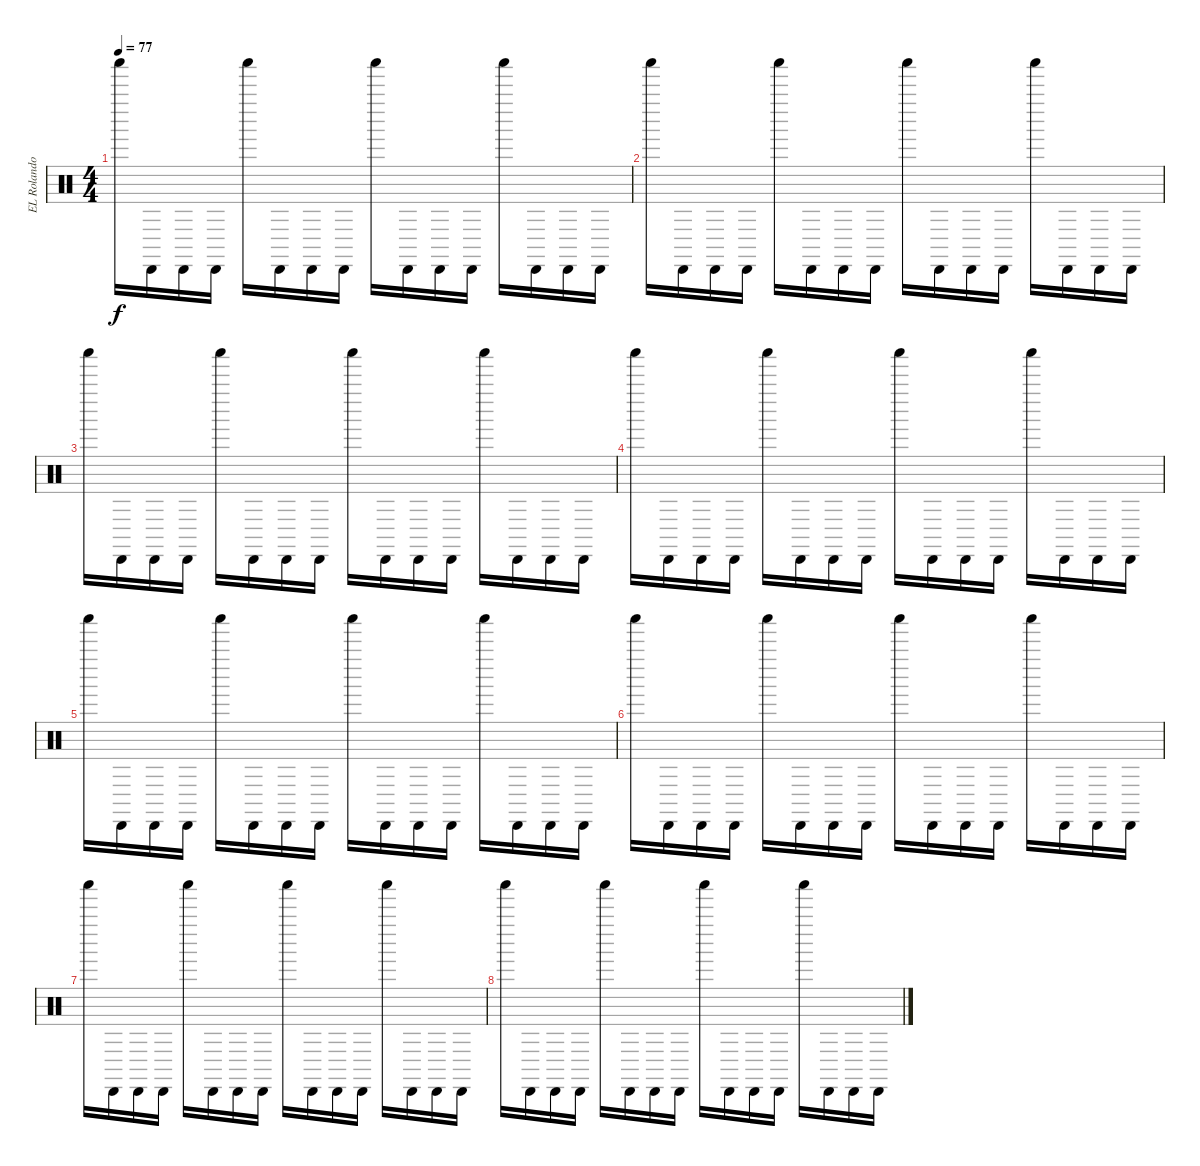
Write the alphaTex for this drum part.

\track ("EL Rolando" "EL Rolando") {instrument percussion}
\staff {score}
\articulation defaults
\ts (4 4)
\tempo 77
\clef neutral
\ks c "Shaker (hit)".16{dy f} "Cabasa (hit)".16 "Cabasa (hit)".16 "Cabasa (hit)".16 "Shaker (hit)".16 "Cabasa (hit)".16 "Cabasa (hit)".16 "Cabasa (hit)".16 "Shaker (hit)".16 "Cabasa (hit)".16 "Cabasa (hit)".16 "Cabasa (hit)".16 "Shaker (hit)".16 "Cabasa (hit)".16 "Cabasa (hit)".16 "Cabasa (hit)".16
|
"Shaker (hit)".16 "Cabasa (hit)".16 "Cabasa (hit)".16 "Cabasa (hit)".16 "Shaker (hit)".16 "Cabasa (hit)".16 "Cabasa (hit)".16 "Cabasa (hit)".16 "Shaker (hit)".16 "Cabasa (hit)".16 "Cabasa (hit)".16 "Cabasa (hit)".16 "Shaker (hit)".16 "Cabasa (hit)".16 "Cabasa (hit)".16 "Cabasa (hit)".16 |
"Shaker (hit)".16 "Cabasa (hit)".16 "Cabasa (hit)".16 "Cabasa (hit)".16 "Shaker (hit)".16 "Cabasa (hit)".16 "Cabasa (hit)".16 "Cabasa (hit)".16 "Shaker (hit)".16 "Cabasa (hit)".16 "Cabasa (hit)".16 "Cabasa (hit)".16 "Shaker (hit)".16 "Cabasa (hit)".16 "Cabasa (hit)".16 "Cabasa (hit)".16 |
"Shaker (hit)".16 "Cabasa (hit)".16 "Cabasa (hit)".16 "Cabasa (hit)".16 "Shaker (hit)".16 "Cabasa (hit)".16 "Cabasa (hit)".16 "Cabasa (hit)".16 "Shaker (hit)".16 "Cabasa (hit)".16 "Cabasa (hit)".16 "Cabasa (hit)".16 "Shaker (hit)".16 "Cabasa (hit)".16 "Cabasa (hit)".16 "Cabasa (hit)".16 |
"Shaker (hit)".16 "Cabasa (hit)".16 "Cabasa (hit)".16 "Cabasa (hit)".16 "Shaker (hit)".16 "Cabasa (hit)".16 "Cabasa (hit)".16 "Cabasa (hit)".16 "Shaker (hit)".16 "Cabasa (hit)".16 "Cabasa (hit)".16 "Cabasa (hit)".16 "Shaker (hit)".16 "Cabasa (hit)".16 "Cabasa (hit)".16 "Cabasa (hit)".16 |
"Shaker (hit)".16 "Cabasa (hit)".16 "Cabasa (hit)".16 "Cabasa (hit)".16 "Shaker (hit)".16 "Cabasa (hit)".16 "Cabasa (hit)".16 "Cabasa (hit)".16 "Shaker (hit)".16 "Cabasa (hit)".16 "Cabasa (hit)".16 "Cabasa (hit)".16 "Shaker (hit)".16 "Cabasa (hit)".16 "Cabasa (hit)".16 "Cabasa (hit)".16 |
"Shaker (hit)".16 "Cabasa (hit)".16 "Cabasa (hit)".16 "Cabasa (hit)".16 "Shaker (hit)".16 "Cabasa (hit)".16 "Cabasa (hit)".16 "Cabasa (hit)".16 "Shaker (hit)".16 "Cabasa (hit)".16 "Cabasa (hit)".16 "Cabasa (hit)".16 "Shaker (hit)".16 "Cabasa (hit)".16 "Cabasa (hit)".16 "Cabasa (hit)".16 |
"Shaker (hit)".16 "Cabasa (hit)".16 "Cabasa (hit)".16 "Cabasa (hit)".16 "Shaker (hit)".16 "Cabasa (hit)".16 "Cabasa (hit)".16 "Cabasa (hit)".16 "Shaker (hit)".16 "Cabasa (hit)".16 "Cabasa (hit)".16 "Cabasa (hit)".16 "Shaker (hit)".16 "Cabasa (hit)".16 "Cabasa (hit)".16 "Cabasa (hit)".16
